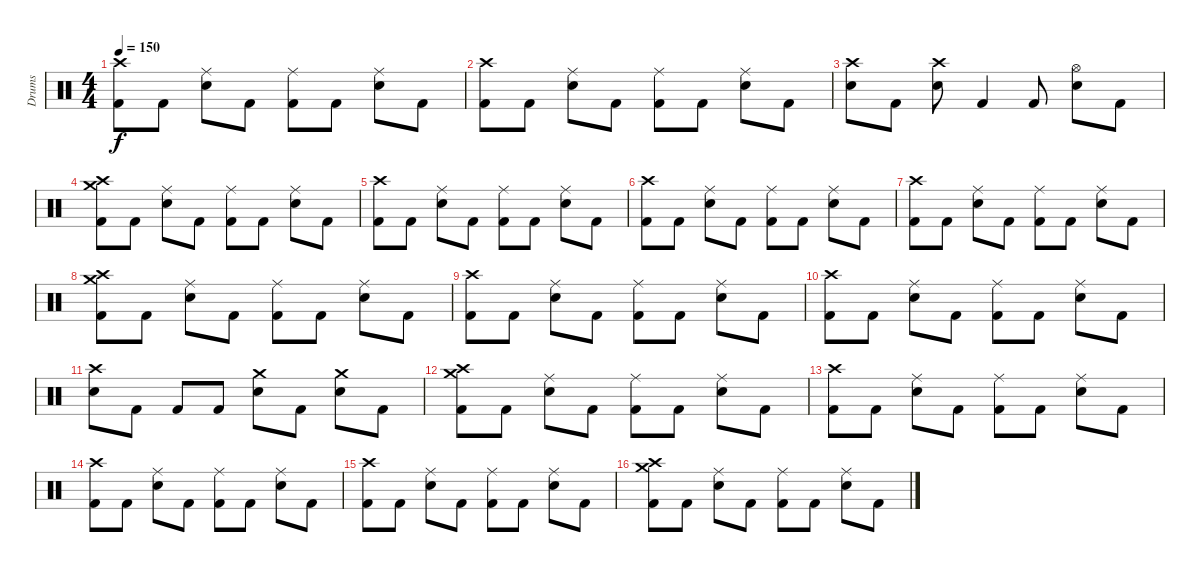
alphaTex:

\track ("Drums" "Drums") {instrument percussion}
\staff {score}
\articulation defaults
\ts (4 4)
\tempo 150
\clef neutral
\ks c
("Crash high (hit)" "Kick (hit) 2").8{dy f} "Kick (hit) 2".8 ("Ride (middle)" "Snare (hit) 2").8 "Kick (hit) 2".8 ("Ride (middle)" "Kick (hit) 2").8 "Kick (hit) 2".8 ("Ride (middle)" "Snare (hit) 2").8 "Kick (hit) 2".8 |
("Crash high (hit)" "Kick (hit) 2").8 "Kick (hit) 2".8 ("Ride (middle)" "Snare (hit) 2").8 "Kick (hit) 2".8 ("Ride (middle)" "Kick (hit) 2").8 "Kick (hit) 2".8 ("Ride (middle)" "Snare (hit) 2").8 "Kick (hit) 2".8 |
("Crash high (hit)" "Snare (hit) 2").8 "Kick (hit) 2".8 ("Crash high (hit)" "Snare (hit) 2").8 "Kick (hit) 2".4 "Kick (hit) 2".8 ("Hi-Hat (open)" "Snare (hit) 2").8 "Kick (hit) 2".8 |
("Crash high (hit)" "Crash medium (hit)" "Kick (hit) 2").8 "Kick (hit) 2".8 ("Ride (middle)" "Snare (hit) 2").8 "Kick (hit) 2".8 ("Ride (middle)" "Kick (hit) 2").8 "Kick (hit) 2".8 ("Ride (middle)" "Snare (hit) 2").8 "Kick (hit) 2".8 |
("Crash high (hit)" "Kick (hit) 2").8 "Kick (hit) 2".8 ("Ride (middle)" "Snare (hit) 2").8 "Kick (hit) 2".8 ("Ride (middle)" "Kick (hit) 2").8 "Kick (hit) 2".8 ("Ride (middle)" "Snare (hit) 2").8 "Kick (hit) 2".8 |
("Crash high (hit)" "Kick (hit) 2").8 "Kick (hit) 2".8 ("Ride (middle)" "Snare (hit) 2").8 "Kick (hit) 2".8 ("Ride (middle)" "Kick (hit) 2").8 "Kick (hit) 2".8 ("Ride (middle)" "Snare (hit) 2").8 "Kick (hit) 2".8 |
("Crash high (hit)" "Kick (hit) 2").8 "Kick (hit) 2".8 ("Ride (middle)" "Snare (hit) 2").8 "Kick (hit) 2".8 ("Ride (middle)" "Kick (hit) 2").8 "Kick (hit) 2".8 ("Ride (middle)" "Snare (hit) 2").8 "Kick (hit) 2".8 |
("Crash high (hit)" "Crash medium (hit)" "Kick (hit) 2").8 "Kick (hit) 2".8 ("Ride (middle)" "Snare (hit) 2").8 "Kick (hit) 2".8 ("Ride (middle)" "Kick (hit) 2").8 "Kick (hit) 2".8 ("Ride (middle)" "Snare (hit) 2").8 "Kick (hit) 2".8 |
("Crash high (hit)" "Kick (hit) 2").8 "Kick (hit) 2".8 ("Ride (middle)" "Snare (hit) 2").8 "Kick (hit) 2".8 ("Ride (middle)" "Kick (hit) 2").8 "Kick (hit) 2".8 ("Ride (middle)" "Snare (hit) 2").8 "Kick (hit) 2".8 |
("Crash high (hit)" "Kick (hit) 2").8 "Kick (hit) 2".8 ("Ride (middle)" "Snare (hit) 2").8 "Kick (hit) 2".8 ("Ride (middle)" "Kick (hit) 2").8 "Kick (hit) 2".8 ("Ride (middle)" "Snare (hit) 2").8 "Kick (hit) 2".8 |
("Crash high (hit)" "Snare (hit) 2").8 "Kick (hit) 2".8 "Kick (hit) 2".8 "Kick (hit) 2".8 ("Crash medium (hit)" "Snare (hit) 2").8 "Kick (hit) 2".8 ("Crash medium (hit)" "Snare (hit) 2").8 "Kick (hit) 2".8 |
("Crash high (hit)" "Crash medium (hit)" "Kick (hit) 2").8 "Kick (hit) 2".8 ("Ride (middle)" "Snare (hit) 2").8 "Kick (hit) 2".8 ("Ride (middle)" "Kick (hit) 2").8 "Kick (hit) 2".8 ("Ride (middle)" "Snare (hit) 2").8 "Kick (hit) 2".8 |
("Crash high (hit)" "Kick (hit) 2").8 "Kick (hit) 2".8 ("Ride (middle)" "Snare (hit) 2").8 "Kick (hit) 2".8 ("Ride (middle)" "Kick (hit) 2").8 "Kick (hit) 2".8 ("Ride (middle)" "Snare (hit) 2").8 "Kick (hit) 2".8 |
("Crash high (hit)" "Kick (hit) 2").8 "Kick (hit) 2".8 ("Ride (middle)" "Snare (hit) 2").8 "Kick (hit) 2".8 ("Ride (middle)" "Kick (hit) 2").8 "Kick (hit) 2".8 ("Ride (middle)" "Snare (hit) 2").8 "Kick (hit) 2".8 |
("Crash high (hit)" "Kick (hit) 2").8 "Kick (hit) 2".8 ("Ride (middle)" "Snare (hit) 2").8 "Kick (hit) 2".8 ("Ride (middle)" "Kick (hit) 2").8 "Kick (hit) 2".8 ("Ride (middle)" "Snare (hit) 2").8 "Kick (hit) 2".8 |
("Crash high (hit)" "Crash medium (hit)" "Kick (hit) 2").8 "Kick (hit) 2".8 ("Ride (middle)" "Snare (hit) 2").8 "Kick (hit) 2".8 ("Ride (middle)" "Kick (hit) 2").8 "Kick (hit) 2".8 ("Ride (middle)" "Snare (hit) 2").8 "Kick (hit) 2".8
